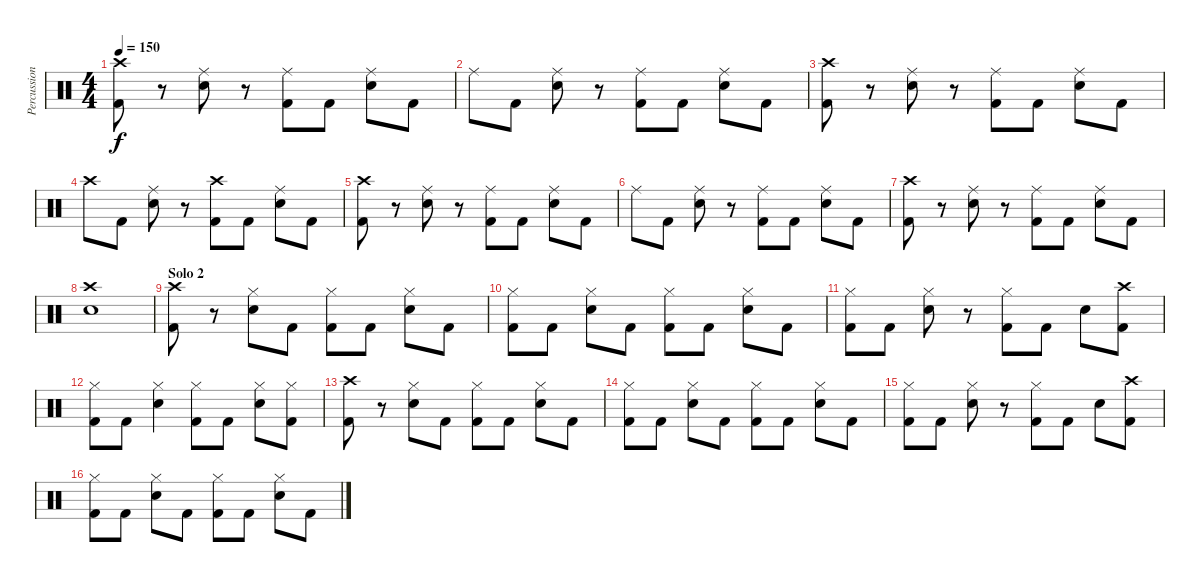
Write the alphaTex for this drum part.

\track ("Percussion" "Percussion") {instrument percussion}
\staff {score}
\articulation defaults
\ts (4 4)
\tempo 150
\clef neutral
\ks c
("Kick (hit) 2" "Crash high (hit)").8{dy f} r.8 ("Electric Snare (hit)" "Ride (middle)").8 r.8 ("Kick (hit) 2" "Ride (middle)").8 "Kick (hit) 2".8 ("Electric Snare (hit)" "Ride (middle)").8 "Kick (hit) 2".8 |
"Ride (middle)".8 "Kick (hit) 2".8 ("Electric Snare (hit)" "Ride (middle)").8 r.8 ("Kick (hit) 2" "Ride (middle)").8 "Kick (hit) 2".8 ("Electric Snare (hit)" "Ride (middle)").8 "Kick (hit) 2".8 |
("Kick (hit) 2" "Crash high (hit)").8 r.8 ("Electric Snare (hit)" "Ride (middle)").8 r.8 ("Kick (hit) 2" "Ride (middle)").8 "Kick (hit) 2".8 ("Electric Snare (hit)" "Ride (middle)").8 "Kick (hit) 2".8 |
"Crash high (hit)".8 "Kick (hit) 2".8 ("Electric Snare (hit)" "Ride (middle)").8 r.8 ("Kick (hit) 2" "Crash high (hit)").8 "Kick (hit) 2".8 ("Electric Snare (hit)" "Ride (middle)").8 "Kick (hit) 2".8 |
("Kick (hit) 2" "Crash high (hit)").8 r.8 ("Electric Snare (hit)" "Ride (middle)").8 r.8 ("Kick (hit) 2" "Ride (middle)").8 "Kick (hit) 2".8 ("Electric Snare (hit)" "Ride (middle)").8 "Kick (hit) 2".8 |
"Ride (middle)".8 "Kick (hit) 2".8 ("Electric Snare (hit)" "Ride (middle)").8 r.8 ("Kick (hit) 2" "Ride (middle)").8 "Kick (hit) 2".8 ("Electric Snare (hit)" "Ride (middle)").8 "Kick (hit) 2".8 |
("Kick (hit) 2" "Crash high (hit)").8 r.8 ("Electric Snare (hit)" "Ride (middle)").8 r.8 ("Kick (hit) 2" "Ride (middle)").8 "Kick (hit) 2".8 ("Electric Snare (hit)" "Ride (middle)").8 "Kick (hit) 2".8 |
("Electric Snare (hit)" "Crash high (hit)").1 |
\section ("" "Solo 2")
("Crash high (hit)" "Kick (hit) 2").8 r.8 ("Hi-Hat (closed)" "Electric Snare (hit)").8 "Kick (hit) 2".8 ("Hi-Hat (closed)" "Kick (hit) 2").8 "Kick (hit) 2".8 ("Hi-Hat (closed)" "Electric Snare (hit)").8 "Kick (hit) 2".8 |
("Hi-Hat (closed)" "Kick (hit) 2").8 "Kick (hit) 2".8 ("Hi-Hat (closed)" "Electric Snare (hit)").8 "Kick (hit) 2".8 ("Hi-Hat (closed)" "Kick (hit) 2").8 "Kick (hit) 2".8 ("Hi-Hat (closed)" "Electric Snare (hit)").8 "Kick (hit) 2".8 |
("Hi-Hat (closed)" "Kick (hit) 2").8 "Kick (hit) 2".8 ("Hi-Hat (closed)" "Electric Snare (hit)").8 r.8 ("Hi-Hat (closed)" "Kick (hit) 2").8 "Kick (hit) 2".8 "Electric Snare (hit)".8 ("Crash high (hit)" "Kick (hit) 2").8 |
("Hi-Hat (closed)" "Kick (hit) 2").8 "Kick (hit) 2".8 ("Hi-Hat (closed)" "Electric Snare (hit)").4 ("Hi-Hat (closed)" "Kick (hit) 2").8 "Kick (hit) 2".8 ("Hi-Hat (closed)" "Electric Snare (hit)").8 ("Hi-Hat (closed)" "Kick (hit) 2").8 |
("Crash high (hit)" "Kick (hit) 2").8 r.8 ("Hi-Hat (closed)" "Electric Snare (hit)").8 "Kick (hit) 2".8 ("Hi-Hat (closed)" "Kick (hit) 2").8 "Kick (hit) 2".8 ("Hi-Hat (closed)" "Electric Snare (hit)").8 "Kick (hit) 2".8 |
("Hi-Hat (closed)" "Kick (hit) 2").8 "Kick (hit) 2".8 ("Hi-Hat (closed)" "Electric Snare (hit)").8 "Kick (hit) 2".8 ("Hi-Hat (closed)" "Kick (hit) 2").8 "Kick (hit) 2".8 ("Hi-Hat (closed)" "Electric Snare (hit)").8 "Kick (hit) 2".8 |
("Hi-Hat (closed)" "Kick (hit) 2").8 "Kick (hit) 2".8 ("Hi-Hat (closed)" "Electric Snare (hit)").8 r.8 ("Hi-Hat (closed)" "Kick (hit) 2").8 "Kick (hit) 2".8 "Electric Snare (hit)".8 ("Crash high (hit)" "Kick (hit) 2").8 |
("Hi-Hat (closed)" "Kick (hit) 2").8 "Kick (hit) 2".8 ("Hi-Hat (closed)" "Electric Snare (hit)").8 "Kick (hit) 2".8 ("Hi-Hat (closed)" "Kick (hit) 2").8 "Kick (hit) 2".8 ("Hi-Hat (closed)" "Electric Snare (hit)").8 "Kick (hit) 2".8
